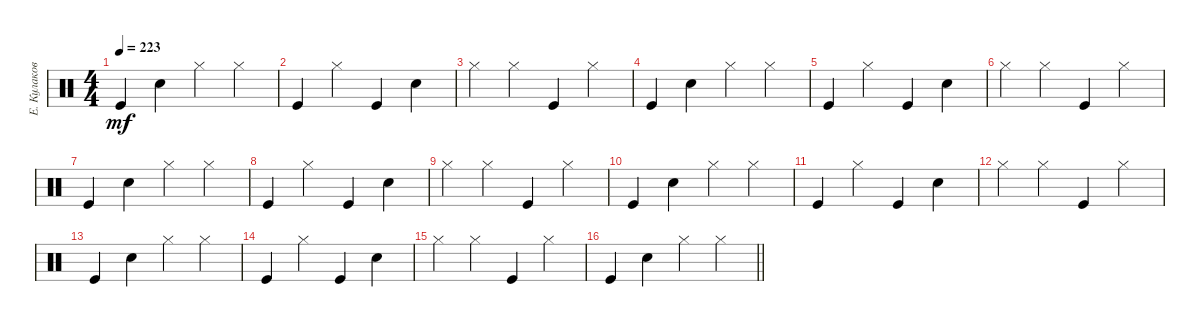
\track ("Е. Кулаков" "Е. Кулаков") {instrument percussion}
\staff {score}
\articulation defaults
\ts (4 4)
\tempo 223
\clef neutral
\ks c "Kick (hit)".4{dy mf} "Snare (hit) 2".4 "Hi-Hat (closed)".4 "Hi-Hat (closed)".4
|
"Kick (hit)".4 "Hi-Hat (closed)".4 "Kick (hit)".4 "Snare (hit) 2".4 |
"Hi-Hat (closed)".4 "Hi-Hat (closed)".4 "Kick (hit)".4 "Hi-Hat (closed)".4 |
"Kick (hit)".4 "Snare (hit) 2".4 "Hi-Hat (closed)".4 "Hi-Hat (closed)".4 |
"Kick (hit)".4 "Hi-Hat (closed)".4 "Kick (hit)".4 "Snare (hit) 2".4 |
"Hi-Hat (closed)".4 "Hi-Hat (closed)".4 "Kick (hit)".4 "Hi-Hat (closed)".4 |
"Kick (hit)".4 "Snare (hit) 2".4 "Hi-Hat (closed)".4 "Hi-Hat (closed)".4 |
"Kick (hit)".4 "Hi-Hat (closed)".4 "Kick (hit)".4 "Snare (hit) 2".4 |
"Hi-Hat (closed)".4 "Hi-Hat (closed)".4 "Kick (hit)".4 "Hi-Hat (closed)".4 |
"Kick (hit)".4 "Snare (hit) 2".4 "Hi-Hat (closed)".4 "Hi-Hat (closed)".4 |
"Kick (hit)".4 "Hi-Hat (closed)".4 "Kick (hit)".4 "Snare (hit) 2".4 |
"Hi-Hat (closed)".4 "Hi-Hat (closed)".4 "Kick (hit)".4 "Hi-Hat (closed)".4 |
"Kick (hit)".4 "Snare (hit) 2".4 "Hi-Hat (closed)".4 "Hi-Hat (closed)".4 |
"Kick (hit)".4 "Hi-Hat (closed)".4 "Kick (hit)".4 "Snare (hit) 2".4 |
"Hi-Hat (closed)".4 "Hi-Hat (closed)".4 "Kick (hit)".4 "Hi-Hat (closed)".4 |
\barLineRight lightlight "Kick (hit)".4 "Snare (hit) 2".4 "Hi-Hat (closed)".4 "Hi-Hat (closed)".4
